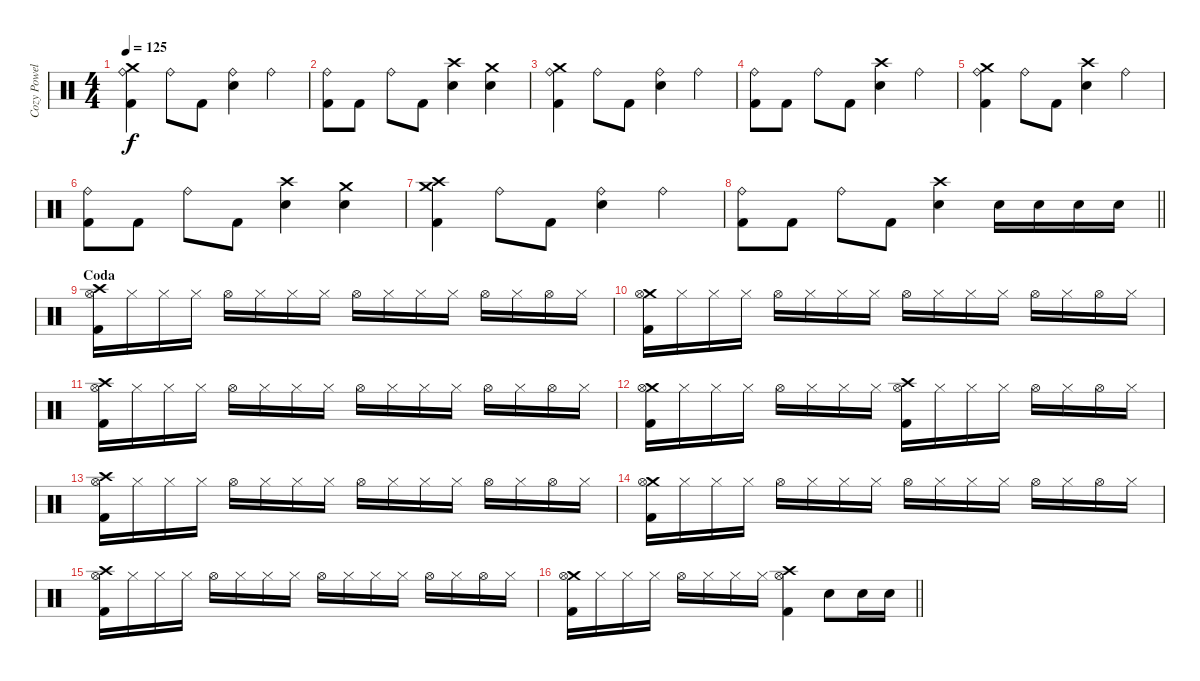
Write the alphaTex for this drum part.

\track ("Cozy Powell " "Cozy Powel") {instrument percussion}
\staff {score}
\articulation defaults
\ts (4 4)
\tempo 125
\clef neutral
\ks c
("Crash medium (hit)" "Ride (bell)" "Kick (hit) 2").4{dy f} "Ride (bell)".8 "Kick (hit) 2".8 ("Ride (bell)" "Snare (hit) 2").4 "Ride (bell)".4 |
("Ride (bell)" "Kick (hit) 2").8 "Kick (hit) 2".8 "Ride (bell)".8 "Kick (hit) 2".8 ("Crash high (hit)" "Snare (hit) 2").4 ("Crash medium (hit)" "Snare (hit) 2").4 |
("Crash medium (hit)" "Ride (bell)" "Kick (hit) 2").4 "Ride (bell)".8 "Kick (hit) 2".8 ("Ride (bell)" "Snare (hit) 2").4 "Ride (bell)".4 |
("Ride (bell)" "Kick (hit) 2").8 "Kick (hit) 2".8 "Ride (bell)".8 "Kick (hit) 2".8 ("Crash high (hit)" "Snare (hit) 2").4 "Ride (bell)".4 |
("Crash medium (hit)" "Ride (bell)" "Kick (hit) 2").4 "Ride (bell)".8 "Kick (hit) 2".8 ("Crash high (hit)" "Snare (hit) 2").4 "Ride (bell)".4 |
("Ride (bell)" "Kick (hit) 2").8 "Kick (hit) 2".8 "Ride (bell)".8 "Kick (hit) 2".8 ("Crash high (hit)" "Snare (hit) 2").4 ("Crash medium (hit)" "Snare (hit) 2").4 |
("Crash medium (hit)" "Crash high (hit)" "Kick (hit) 2").4 "Ride (bell)".8 "Kick (hit) 2".8 ("Ride (bell)" "Snare (hit) 2").4 "Ride (bell)".4 |
\barLineRight lightlight
("Ride (bell)" "Kick (hit) 2").8 "Kick (hit) 2".8 "Ride (bell)".8 "Kick (hit) 2".8 ("Crash high (hit)" "Snare (hit) 2").4 "Snare (hit) 2".16 "Snare (hit) 2".16 "Snare (hit) 2".16 "Snare (hit) 2".16 |
\section ("" "Coda")
("Crash high (hit)" "Hi-Hat (open)" "Kick (hit) 2").16 "Hi-Hat (closed)".16 "Hi-Hat (closed)".16 "Hi-Hat (closed)".16 "Hi-Hat (open)".16 "Hi-Hat (closed)".16 "Hi-Hat (closed)".16 "Hi-Hat (closed)".16 "Hi-Hat (open)".16 "Hi-Hat (closed)".16 "Hi-Hat (closed)".16 "Hi-Hat (closed)".16 "Hi-Hat (open)".16 "Hi-Hat (closed)".16 "Hi-Hat (open)".16 "Hi-Hat (closed)".16 |
("Crash medium (hit)" "Hi-Hat (open)" "Kick (hit) 2").16 "Hi-Hat (closed)".16 "Hi-Hat (closed)".16 "Hi-Hat (closed)".16 "Hi-Hat (open)".16 "Hi-Hat (closed)".16 "Hi-Hat (closed)".16 "Hi-Hat (closed)".16 "Hi-Hat (open)".16 "Hi-Hat (closed)".16 "Hi-Hat (closed)".16 "Hi-Hat (closed)".16 "Hi-Hat (open)".16 "Hi-Hat (closed)".16 "Hi-Hat (open)".16 "Hi-Hat (closed)".16 |
("Crash high (hit)" "Hi-Hat (open)" "Kick (hit) 2").16 "Hi-Hat (closed)".16 "Hi-Hat (closed)".16 "Hi-Hat (closed)".16 "Hi-Hat (open)".16 "Hi-Hat (closed)".16 "Hi-Hat (closed)".16 "Hi-Hat (closed)".16 "Hi-Hat (open)".16 "Hi-Hat (closed)".16 "Hi-Hat (closed)".16 "Hi-Hat (closed)".16 "Hi-Hat (open)".16 "Hi-Hat (closed)".16 "Hi-Hat (open)".16 "Hi-Hat (closed)".16 |
("Crash medium (hit)" "Hi-Hat (open)" "Kick (hit) 2").16 "Hi-Hat (closed)".16 "Hi-Hat (closed)".16 "Hi-Hat (closed)".16 "Hi-Hat (open)".16 "Hi-Hat (closed)".16 "Hi-Hat (closed)".16 "Hi-Hat (closed)".16 ("Crash high (hit)" "Hi-Hat (open)" "Kick (hit) 2").16 "Hi-Hat (closed)".16 "Hi-Hat (closed)".16 "Hi-Hat (closed)".16 "Hi-Hat (open)".16 "Hi-Hat (closed)".16 "Hi-Hat (open)".16 "Hi-Hat (closed)".16 |
("Crash high (hit)" "Hi-Hat (open)" "Kick (hit) 2").16 "Hi-Hat (closed)".16 "Hi-Hat (closed)".16 "Hi-Hat (closed)".16 "Hi-Hat (open)".16 "Hi-Hat (closed)".16 "Hi-Hat (closed)".16 "Hi-Hat (closed)".16 "Hi-Hat (open)".16 "Hi-Hat (closed)".16 "Hi-Hat (closed)".16 "Hi-Hat (closed)".16 "Hi-Hat (open)".16 "Hi-Hat (closed)".16 "Hi-Hat (open)".16 "Hi-Hat (closed)".16 |
("Crash medium (hit)" "Hi-Hat (open)" "Kick (hit) 2").16 "Hi-Hat (closed)".16 "Hi-Hat (closed)".16 "Hi-Hat (closed)".16 "Hi-Hat (open)".16 "Hi-Hat (closed)".16 "Hi-Hat (closed)".16 "Hi-Hat (closed)".16 "Hi-Hat (open)".16 "Hi-Hat (closed)".16 "Hi-Hat (closed)".16 "Hi-Hat (closed)".16 "Hi-Hat (open)".16 "Hi-Hat (closed)".16 "Hi-Hat (open)".16 "Hi-Hat (closed)".16 |
("Crash high (hit)" "Hi-Hat (open)" "Kick (hit) 2").16 "Hi-Hat (closed)".16 "Hi-Hat (closed)".16 "Hi-Hat (closed)".16 "Hi-Hat (open)".16 "Hi-Hat (closed)".16 "Hi-Hat (closed)".16 "Hi-Hat (closed)".16 "Hi-Hat (open)".16 "Hi-Hat (closed)".16 "Hi-Hat (closed)".16 "Hi-Hat (closed)".16 "Hi-Hat (open)".16 "Hi-Hat (closed)".16 "Hi-Hat (open)".16 "Hi-Hat (closed)".16 |
\barLineRight lightlight
("Crash medium (hit)" "Hi-Hat (open)" "Kick (hit) 2").16 "Hi-Hat (closed)".16 "Hi-Hat (closed)".16 "Hi-Hat (closed)".16 "Hi-Hat (open)".16 "Hi-Hat (closed)".16 "Hi-Hat (closed)".16 "Hi-Hat (closed)".16 ("Crash high (hit)" "Hi-Hat (open)" "Kick (hit) 2").4 "Snare (hit) 2".8 "Snare (hit) 2".16 "Snare (hit) 2".16
